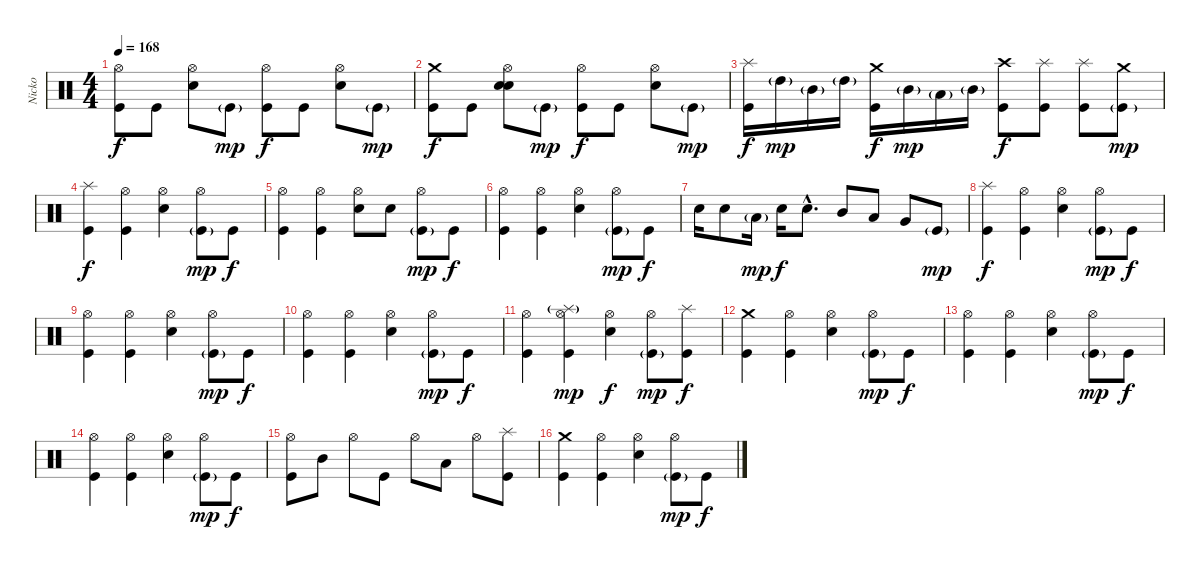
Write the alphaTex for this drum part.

\track ("Nicko" "Nicko") {instrument percussion}
\staff {score}
\articulation defaults
\ts (4 4)
\tempo 168
\clef neutral
\ks c
("Kick (hit)" "Hi-Hat (open)").8{dy f} "Kick (hit)".8 ("Electric Snare (hit)" "Hi-Hat (open)").8 "Kick (hit)"{g}.8{dy mp} ("Kick (hit)" "Hi-Hat (open)").8{dy f} "Kick (hit)".8 ("Electric Snare (hit)" "Hi-Hat (open)").8 "Kick (hit)"{g}.8{dy mp} |
("Kick (hit)" "Crash medium (hit)").8{dy f} "Kick (hit)".8 ("Electric Snare (hit)" "Hi-Hat (open)" "Snare (hit)").8 "Kick (hit)"{g}.8{dy mp} ("Kick (hit)" "Hi-Hat (open)").8{dy f} "Kick (hit)".8 ("Electric Snare (hit)" "Hi-Hat (open)").8 "Kick (hit)"{g}.8{dy mp} |
("Kick (hit)" "Splash (hit)").16{dy f} "High Tom (hit)"{g}.16{dy mp} "Mid Tom (hit)"{g}.16 "High Tom (hit)"{g}.16 ("Kick (hit)" "Crash medium (hit)").16{dy f} "Mid Tom (hit)"{g}.16{dy mp} "Low Tom (hit)"{g}.16 "Mid Tom (hit)"{g}.16 ("Kick (hit)" "Crash high (hit)").8{dy f} ("Kick (hit)" "Splash (hit)").8 ("Kick (hit)" "Splash (hit)").8 ("Kick (hit)"{g} "Crash medium (hit)").8{dy mp} |
("Kick (hit)" "Splash (hit)").4{dy f} ("Kick (hit)" "Hi-Hat (open)").4 ("Electric Snare (hit)" "Hi-Hat (open)").4 ("Kick (hit)"{g} "Hi-Hat (open)").8{dy mp} "Kick (hit)".8{dy f} |
("Kick (hit)" "Hi-Hat (open)").4 ("Kick (hit)" "Hi-Hat (open)").4 ("Electric Snare (hit)" "Hi-Hat (open)").8 "Electric Snare (hit)".8 ("Kick (hit)"{g} "Hi-Hat (open)").8{dy mp} "Kick (hit)".8{dy f} |
("Kick (hit)" "Hi-Hat (open)").4 ("Kick (hit)" "Hi-Hat (open)").4 ("Electric Snare (hit)" "Hi-Hat (open)").4 ("Kick (hit)"{g} "Hi-Hat (open)").8{dy mp} "Kick (hit)".8{dy f} |
"Electric Snare (hit)".16 "Electric Snare (hit)".8 "Low Tom (hit)"{g}.16{dy mp} "Electric Snare (hit)".16{dy f} "Electric Snare (hit)"{hac}.8{d} "Mid Tom (hit)".8 "Low Tom (hit)".8 "Very Low Tom (hit)".8 "Kick (hit)"{g}.8{dy mp} |
("Kick (hit)" "Splash (hit)").4{dy f} ("Kick (hit)" "Hi-Hat (open)").4 ("Electric Snare (hit)" "Hi-Hat (open)").4 ("Kick (hit)"{g} "Hi-Hat (open)").8{dy mp} "Kick (hit)".8{dy f} |
("Kick (hit)" "Hi-Hat (open)").4 ("Kick (hit)" "Hi-Hat (open)").4 ("Electric Snare (hit)" "Hi-Hat (open)").4 ("Kick (hit)"{g} "Hi-Hat (open)").8{dy mp} "Kick (hit)".8{dy f} |
("Kick (hit)" "Hi-Hat (open)").4 ("Kick (hit)" "Hi-Hat (open)").4 ("Electric Snare (hit)" "Hi-Hat (open)").4 ("Kick (hit)"{g} "Hi-Hat (open)").8{dy mp} "Kick (hit)".8{dy f} |
("Kick (hit)" "Hi-Hat (open)").4 ("Kick (hit)" "Hi-Hat (open)" "Splash (hit)"{g}).4{dy mp} ("Electric Snare (hit)" "Hi-Hat (open)").4{dy f} ("Kick (hit)"{g} "Hi-Hat (open)").8{dy mp} ("Kick (hit)" "Splash (hit)").8{dy f} |
("Kick (hit)" "Crash medium (hit)").4 ("Kick (hit)" "Hi-Hat (open)").4 ("Electric Snare (hit)" "Hi-Hat (open)").4 ("Kick (hit)"{g} "Hi-Hat (open)").8{dy mp} "Kick (hit)".8{dy f} |
("Kick (hit)" "Hi-Hat (open)").4 ("Kick (hit)" "Hi-Hat (open)").4 ("Electric Snare (hit)" "Hi-Hat (open)").4 ("Kick (hit)"{g} "Hi-Hat (open)").8{dy mp} "Kick (hit)".8{dy f} |
("Kick (hit)" "Hi-Hat (open)").4 ("Kick (hit)" "Hi-Hat (open)").4 ("Electric Snare (hit)" "Hi-Hat (open)").4 ("Kick (hit)"{g} "Hi-Hat (open)").8{dy mp} "Kick (hit)".8{dy f} |
("Kick (hit)" "Hi-Hat (open)").8 "Mid Tom (hit)".8 "Hi-Hat (open)".8 "Kick (hit)".8 "Hi-Hat (open)".8 "Low Tom (hit)".8 "Hi-Hat (open)".8 ("Kick (hit)" "Splash (hit)").8 |
("Kick (hit)" "Crash medium (hit)").4 ("Kick (hit)" "Hi-Hat (open)").4 ("Electric Snare (hit)" "Hi-Hat (open)").4 ("Kick (hit)"{g} "Hi-Hat (open)").8{dy mp} "Kick (hit)".8{dy f}
